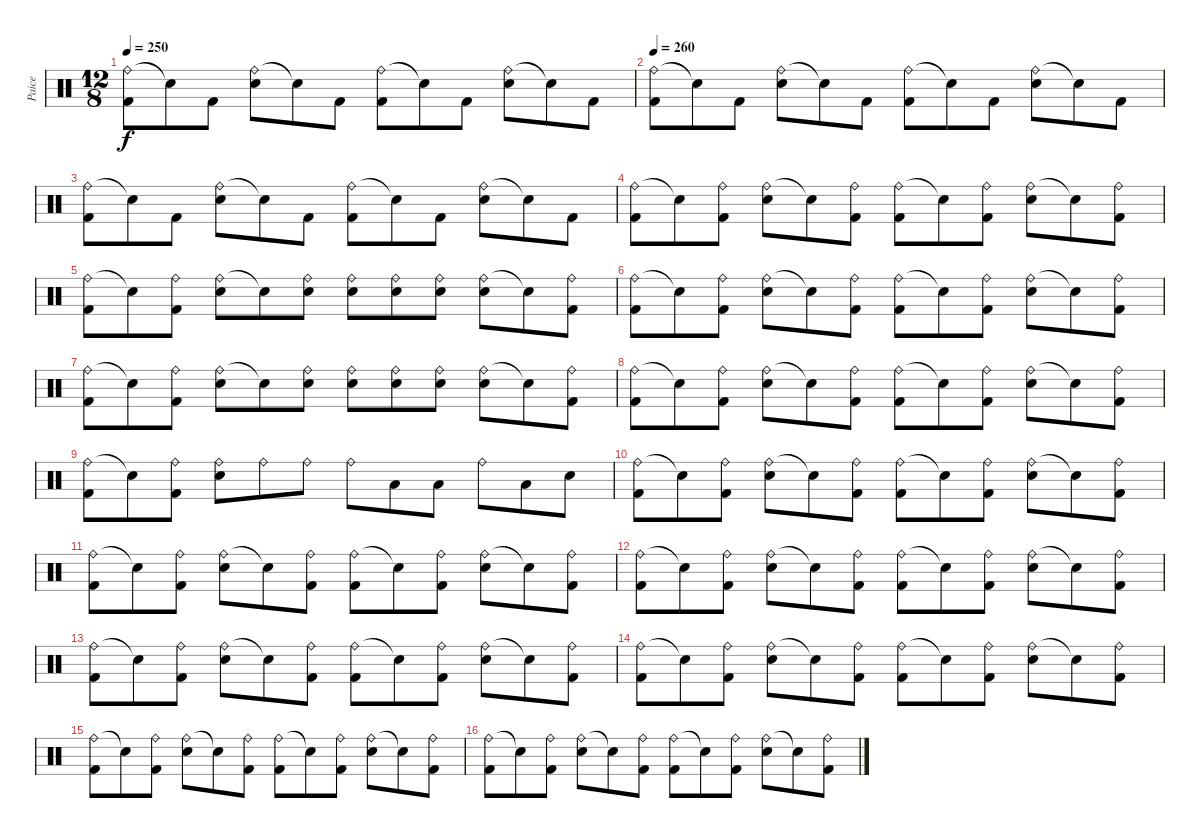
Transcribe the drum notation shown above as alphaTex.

\track ("Paice" "Paice") {instrument percussion}
\staff {score}
\articulation defaults
\ts (12 8)
\tempo 250
\clef neutral
\ks c
("Ride (bell)" "Kick (hit) 2").8{dy f} "Snare (hit)"{t}.8 "Kick (hit) 2".8 ("Ride (bell)" "Electric Snare (hit)").8 "Snare (hit)"{t}.8 "Kick (hit) 2".8 ("Ride (bell)" "Kick (hit) 2").8 "Snare (hit)"{t}.8 "Kick (hit) 2".8 ("Ride (bell)" "Electric Snare (hit)").8 "Snare (hit)"{t}.8 "Kick (hit) 2".8 |
\tempo 260
("Ride (bell)" "Kick (hit) 2").8 "Snare (hit)"{t}.8 "Kick (hit) 2".8 ("Ride (bell)" "Electric Snare (hit)").8 "Snare (hit)"{t}.8 "Kick (hit) 2".8 ("Ride (bell)" "Kick (hit) 2").8 "Snare (hit)"{t}.8 "Kick (hit) 2".8 ("Ride (bell)" "Electric Snare (hit)").8 "Snare (hit)"{t}.8 "Kick (hit) 2".8 |
("Ride (bell)" "Kick (hit) 2").8 "Snare (hit)"{t}.8 "Kick (hit) 2".8 ("Ride (bell)" "Electric Snare (hit)").8 "Snare (hit)"{t}.8 "Kick (hit) 2".8 ("Ride (bell)" "Kick (hit) 2").8 "Snare (hit)"{t}.8 "Kick (hit) 2".8 ("Ride (bell)" "Electric Snare (hit)").8 "Snare (hit)"{t}.8 "Kick (hit) 2".8 |
("Ride (bell)" "Kick (hit) 2").8 "Snare (hit)"{t}.8 ("Ride (bell)" "Kick (hit) 2").8 ("Ride (bell)" "Electric Snare (hit)").8 "Snare (hit)"{t}.8 ("Ride (bell)" "Kick (hit) 2").8 ("Ride (bell)" "Kick (hit) 2").8 "Snare (hit)"{t}.8 ("Ride (bell)" "Kick (hit) 2").8 ("Ride (bell)" "Electric Snare (hit)").8 "Snare (hit)"{t}.8 ("Ride (bell)" "Kick (hit) 2").8 |
("Ride (bell)" "Kick (hit) 2").8 "Snare (hit)"{t}.8 ("Ride (bell)" "Kick (hit) 2").8 ("Ride (bell)" "Electric Snare (hit)").8 "Snare (hit)"{t}.8 ("Ride (bell)" "Electric Snare (hit)").8 ("Ride (bell)" "Electric Snare (hit)").8 ("Ride (bell)" "Electric Snare (hit)").8 ("Ride (bell)" "Electric Snare (hit)").8 ("Ride (bell)" "Electric Snare (hit)").8 "Snare (hit)"{t}.8 ("Ride (bell)" "Kick (hit) 2").8 |
("Ride (bell)" "Kick (hit) 2").8 "Snare (hit)"{t}.8 ("Ride (bell)" "Kick (hit) 2").8 ("Ride (bell)" "Electric Snare (hit)").8 "Snare (hit)"{t}.8 ("Ride (bell)" "Kick (hit) 2").8 ("Ride (bell)" "Kick (hit) 2").8 "Snare (hit)"{t}.8 ("Ride (bell)" "Kick (hit) 2").8 ("Ride (bell)" "Electric Snare (hit)").8 "Snare (hit)"{t}.8 ("Ride (bell)" "Kick (hit) 2").8 |
("Ride (bell)" "Kick (hit) 2").8 "Snare (hit)"{t}.8 ("Ride (bell)" "Kick (hit) 2").8 ("Ride (bell)" "Electric Snare (hit)").8 "Snare (hit)"{t}.8 ("Ride (bell)" "Electric Snare (hit)").8 ("Ride (bell)" "Electric Snare (hit)").8 ("Ride (bell)" "Electric Snare (hit)").8 ("Ride (bell)" "Electric Snare (hit)").8 ("Ride (bell)" "Electric Snare (hit)").8 "Snare (hit)"{t}.8 ("Ride (bell)" "Kick (hit) 2").8 |
("Ride (bell)" "Kick (hit) 2").8 "Snare (hit)"{t}.8 ("Ride (bell)" "Kick (hit) 2").8 ("Ride (bell)" "Electric Snare (hit)").8 "Snare (hit)"{t}.8 ("Ride (bell)" "Kick (hit) 2").8 ("Ride (bell)" "Kick (hit) 2").8 "Snare (hit)"{t}.8 ("Ride (bell)" "Kick (hit) 2").8 ("Ride (bell)" "Electric Snare (hit)").8 "Snare (hit)"{t}.8 ("Ride (bell)" "Kick (hit) 2").8 |
("Ride (bell)" "Kick (hit) 2").8 "Snare (hit)"{t}.8 ("Ride (bell)" "Kick (hit) 2").8 ("Ride (bell)" "Electric Snare (hit)").8 "Ride (bell)".8 "Ride (bell)".8 "Ride (bell)".8 "Low Tom (hit)".8 "Low Tom (hit)".8 "Ride (bell)".8 "Low Tom (hit)".8 "Electric Snare (hit)".8 |
("Ride (bell)" "Kick (hit) 2").8 "Snare (hit)"{t}.8 ("Ride (bell)" "Kick (hit) 2").8 ("Ride (bell)" "Electric Snare (hit)").8 "Snare (hit)"{t}.8 ("Ride (bell)" "Kick (hit) 2").8 ("Ride (bell)" "Kick (hit) 2").8 "Snare (hit)"{t}.8 ("Ride (bell)" "Kick (hit) 2").8 ("Ride (bell)" "Electric Snare (hit)").8 "Snare (hit)"{t}.8 ("Ride (bell)" "Kick (hit) 2").8 |
("Ride (bell)" "Kick (hit) 2").8 "Snare (hit)"{t}.8 ("Ride (bell)" "Kick (hit) 2").8 ("Ride (bell)" "Electric Snare (hit)").8 "Snare (hit)"{t}.8 ("Ride (bell)" "Kick (hit) 2").8 ("Ride (bell)" "Kick (hit) 2").8 "Snare (hit)"{t}.8 ("Ride (bell)" "Kick (hit) 2").8 ("Ride (bell)" "Electric Snare (hit)").8 "Snare (hit)"{t}.8 ("Ride (bell)" "Kick (hit) 2").8 |
("Ride (bell)" "Kick (hit) 2").8 "Snare (hit)"{t}.8 ("Ride (bell)" "Kick (hit) 2").8 ("Ride (bell)" "Electric Snare (hit)").8 "Snare (hit)"{t}.8 ("Ride (bell)" "Kick (hit) 2").8 ("Ride (bell)" "Kick (hit) 2").8 "Snare (hit)"{t}.8 ("Ride (bell)" "Kick (hit) 2").8 ("Ride (bell)" "Electric Snare (hit)").8 "Snare (hit)"{t}.8 ("Ride (bell)" "Kick (hit) 2").8 |
("Ride (bell)" "Kick (hit) 2").8 "Snare (hit)"{t}.8 ("Ride (bell)" "Kick (hit) 2").8 ("Ride (bell)" "Electric Snare (hit)").8 "Snare (hit)"{t}.8 ("Ride (bell)" "Kick (hit) 2").8 ("Ride (bell)" "Kick (hit) 2").8 "Snare (hit)"{t}.8 ("Ride (bell)" "Kick (hit) 2").8 ("Ride (bell)" "Electric Snare (hit)").8 "Snare (hit)"{t}.8 ("Ride (bell)" "Kick (hit) 2").8 |
("Ride (bell)" "Kick (hit) 2").8 "Snare (hit)"{t}.8 ("Ride (bell)" "Kick (hit) 2").8 ("Ride (bell)" "Electric Snare (hit)").8 "Snare (hit)"{t}.8 ("Ride (bell)" "Kick (hit) 2").8 ("Ride (bell)" "Kick (hit) 2").8 "Snare (hit)"{t}.8 ("Ride (bell)" "Kick (hit) 2").8 ("Ride (bell)" "Electric Snare (hit)").8 "Snare (hit)"{t}.8 ("Ride (bell)" "Kick (hit) 2").8 |
("Ride (bell)" "Kick (hit) 2").8 "Snare (hit)"{t}.8 ("Ride (bell)" "Kick (hit) 2").8 ("Ride (bell)" "Electric Snare (hit)").8 "Snare (hit)"{t}.8 ("Ride (bell)" "Kick (hit) 2").8 ("Ride (bell)" "Kick (hit) 2").8 "Snare (hit)"{t}.8 ("Ride (bell)" "Kick (hit) 2").8 ("Ride (bell)" "Electric Snare (hit)").8 "Snare (hit)"{t}.8 ("Ride (bell)" "Kick (hit) 2").8 |
("Ride (bell)" "Kick (hit) 2").8 "Snare (hit)"{t}.8 ("Ride (bell)" "Kick (hit) 2").8 ("Ride (bell)" "Electric Snare (hit)").8 "Snare (hit)"{t}.8 ("Ride (bell)" "Kick (hit) 2").8 ("Ride (bell)" "Kick (hit) 2").8 "Snare (hit)"{t}.8 ("Ride (bell)" "Kick (hit) 2").8 ("Ride (bell)" "Electric Snare (hit)").8 "Snare (hit)"{t}.8 ("Ride (bell)" "Kick (hit) 2").8
